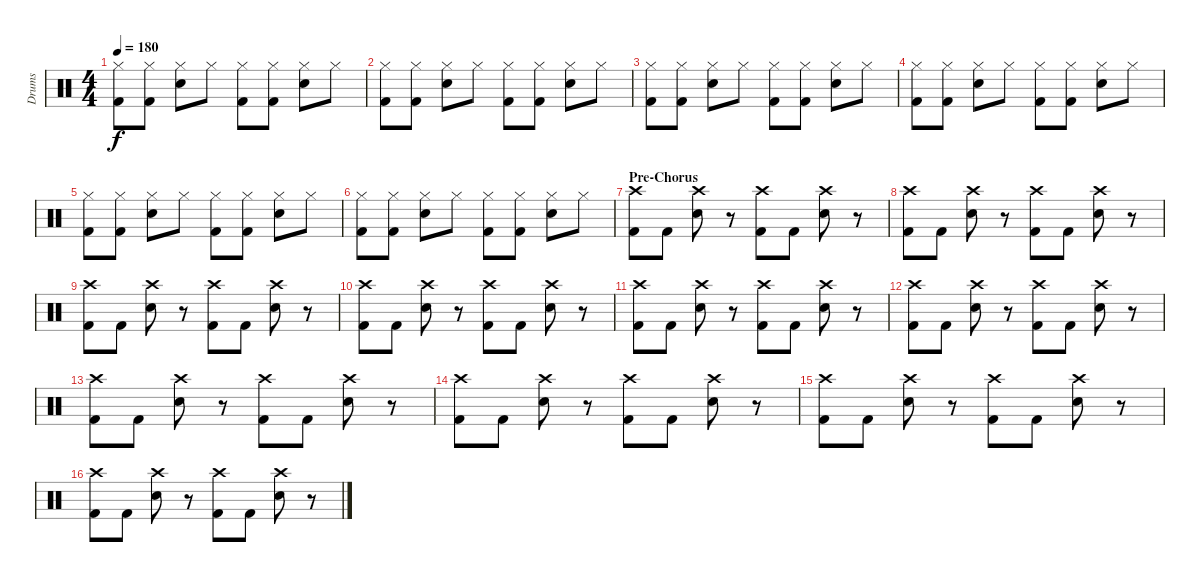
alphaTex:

\track ("Drums" "Drums") {instrument percussion}
\staff {score}
\articulation defaults
\ts (4 4)
\tempo 180
\clef neutral
\ks c
("Hi-Hat (closed)" "Kick (hit) 2").8{dy f} ("Hi-Hat (closed)" "Kick (hit) 2").8 ("Hi-Hat (closed)" "Snare (hit) 2").8 "Hi-Hat (closed)".8 ("Hi-Hat (closed)" "Kick (hit) 2").8 ("Hi-Hat (closed)" "Kick (hit) 2").8 ("Hi-Hat (closed)" "Snare (hit) 2").8 "Hi-Hat (closed)".8 |
("Hi-Hat (closed)" "Kick (hit) 2").8 ("Hi-Hat (closed)" "Kick (hit) 2").8 ("Hi-Hat (closed)" "Snare (hit) 2").8 "Hi-Hat (closed)".8 ("Hi-Hat (closed)" "Kick (hit) 2").8 ("Hi-Hat (closed)" "Kick (hit) 2").8 ("Hi-Hat (closed)" "Snare (hit) 2").8 "Hi-Hat (closed)".8 |
("Hi-Hat (closed)" "Kick (hit) 2").8 ("Hi-Hat (closed)" "Kick (hit) 2").8 ("Hi-Hat (closed)" "Snare (hit) 2").8 "Hi-Hat (closed)".8 ("Hi-Hat (closed)" "Kick (hit) 2").8 ("Hi-Hat (closed)" "Kick (hit) 2").8 ("Hi-Hat (closed)" "Snare (hit) 2").8 "Hi-Hat (closed)".8 |
("Hi-Hat (closed)" "Kick (hit) 2").8 ("Hi-Hat (closed)" "Kick (hit) 2").8 ("Hi-Hat (closed)" "Snare (hit) 2").8 "Hi-Hat (closed)".8 ("Hi-Hat (closed)" "Kick (hit) 2").8 ("Hi-Hat (closed)" "Kick (hit) 2").8 ("Hi-Hat (closed)" "Snare (hit) 2").8 "Hi-Hat (closed)".8 |
("Hi-Hat (closed)" "Kick (hit) 2").8 ("Hi-Hat (closed)" "Kick (hit) 2").8 ("Hi-Hat (closed)" "Snare (hit) 2").8 "Hi-Hat (closed)".8 ("Hi-Hat (closed)" "Kick (hit) 2").8 ("Hi-Hat (closed)" "Kick (hit) 2").8 ("Hi-Hat (closed)" "Snare (hit) 2").8 "Hi-Hat (closed)".8 |
("Hi-Hat (closed)" "Kick (hit) 2").8 ("Hi-Hat (closed)" "Kick (hit) 2").8 ("Hi-Hat (closed)" "Snare (hit) 2").8 "Hi-Hat (closed)".8 ("Hi-Hat (closed)" "Kick (hit) 2").8 ("Hi-Hat (closed)" "Kick (hit) 2").8 ("Hi-Hat (closed)" "Snare (hit) 2").8 "Hi-Hat (closed)".8 |
\section ("" "Pre-Chorus")
("Crash high (hit)" "Kick (hit) 2").8 "Kick (hit) 2".8 ("Crash high (hit)" "Snare (hit) 2").8 r.8 ("Crash high (hit)" "Kick (hit) 2").8 "Kick (hit) 2".8 ("Crash high (hit)" "Snare (hit) 2").8 r.8 |
("Crash high (hit)" "Kick (hit) 2").8 "Kick (hit) 2".8 ("Crash high (hit)" "Snare (hit) 2").8 r.8 ("Crash high (hit)" "Kick (hit) 2").8 "Kick (hit) 2".8 ("Crash high (hit)" "Snare (hit) 2").8 r.8 |
("Crash high (hit)" "Kick (hit) 2").8 "Kick (hit) 2".8 ("Crash high (hit)" "Snare (hit) 2").8 r.8 ("Crash high (hit)" "Kick (hit) 2").8 "Kick (hit) 2".8 ("Crash high (hit)" "Snare (hit) 2").8 r.8 |
("Crash high (hit)" "Kick (hit) 2").8 "Kick (hit) 2".8 ("Crash high (hit)" "Snare (hit) 2").8 r.8 ("Crash high (hit)" "Kick (hit) 2").8 "Kick (hit) 2".8 ("Crash high (hit)" "Snare (hit) 2").8 r.8 |
("Crash high (hit)" "Kick (hit) 2").8 "Kick (hit) 2".8 ("Crash high (hit)" "Snare (hit) 2").8 r.8 ("Crash high (hit)" "Kick (hit) 2").8 "Kick (hit) 2".8 ("Crash high (hit)" "Snare (hit) 2").8 r.8 |
("Crash high (hit)" "Kick (hit) 2").8 "Kick (hit) 2".8 ("Crash high (hit)" "Snare (hit) 2").8 r.8 ("Crash high (hit)" "Kick (hit) 2").8 "Kick (hit) 2".8 ("Crash high (hit)" "Snare (hit) 2").8 r.8 |
("Crash high (hit)" "Kick (hit) 2").8 "Kick (hit) 2".8 ("Crash high (hit)" "Snare (hit) 2").8 r.8 ("Crash high (hit)" "Kick (hit) 2").8 "Kick (hit) 2".8 ("Crash high (hit)" "Snare (hit) 2").8 r.8 |
("Crash high (hit)" "Kick (hit) 2").8 "Kick (hit) 2".8 ("Crash high (hit)" "Snare (hit) 2").8 r.8 ("Crash high (hit)" "Kick (hit) 2").8 "Kick (hit) 2".8 ("Crash high (hit)" "Snare (hit) 2").8 r.8 |
("Crash high (hit)" "Kick (hit) 2").8 "Kick (hit) 2".8 ("Crash high (hit)" "Snare (hit) 2").8 r.8 ("Crash high (hit)" "Kick (hit) 2").8 "Kick (hit) 2".8 ("Crash high (hit)" "Snare (hit) 2").8 r.8 |
("Crash high (hit)" "Kick (hit) 2").8 "Kick (hit) 2".8 ("Crash high (hit)" "Snare (hit) 2").8 r.8 ("Crash high (hit)" "Kick (hit) 2").8 "Kick (hit) 2".8 ("Crash high (hit)" "Snare (hit) 2").8 r.8
